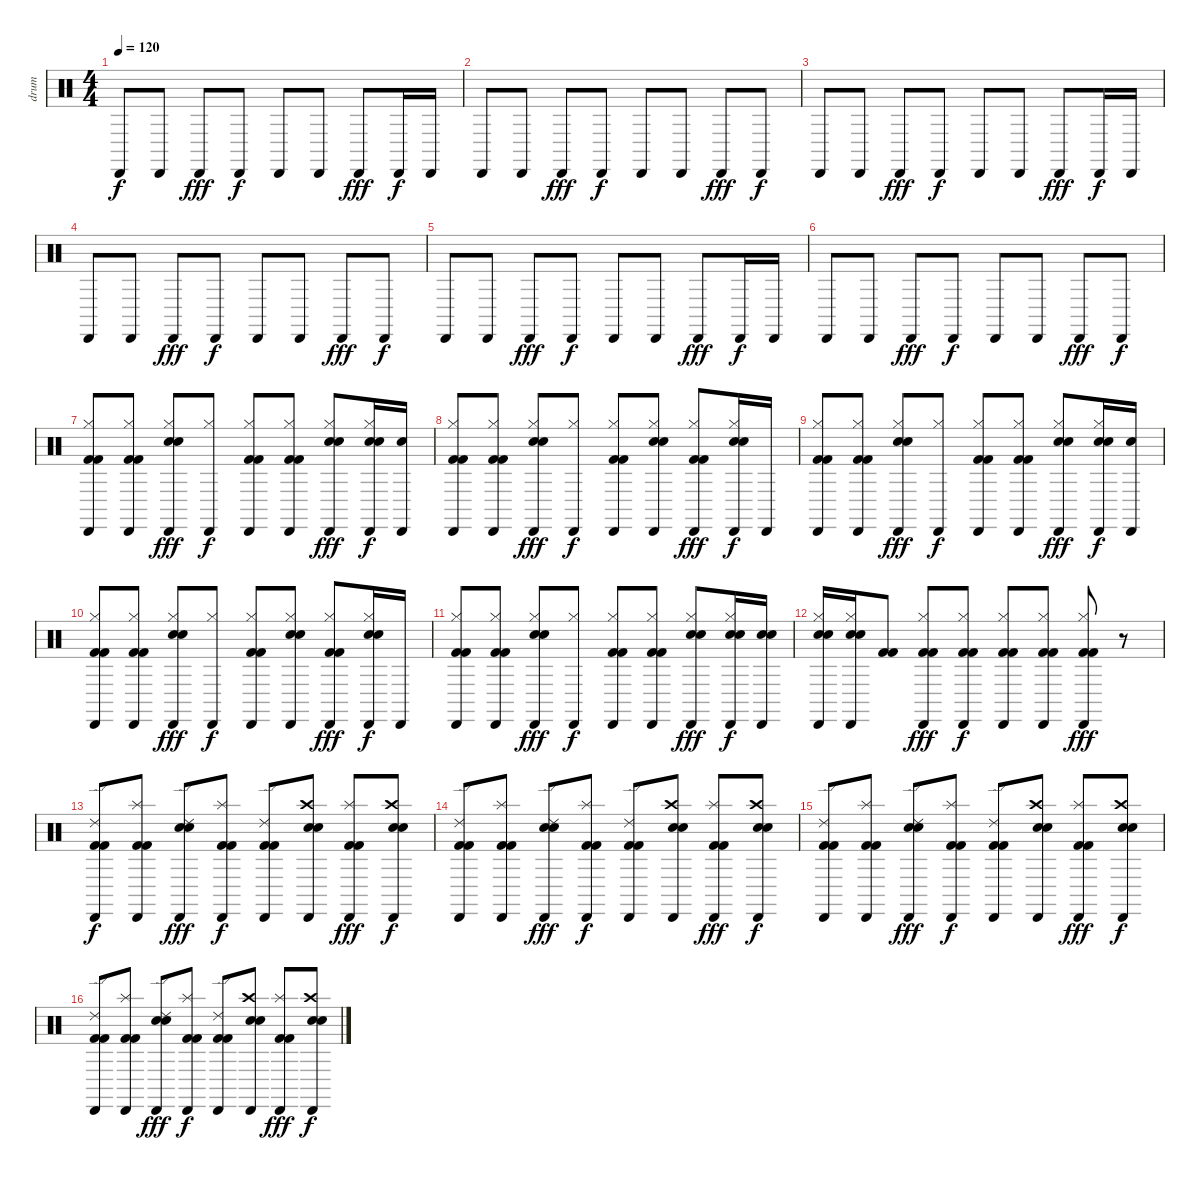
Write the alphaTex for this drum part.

\track ("drum" "drum") {instrument percussion}
\staff {score}
\articulation defaults
\ts (4 4)
\tempo 120
\clef neutral
\ks c "Cabasa (hit)".8{dy f} "Cabasa (hit)".8 "Cabasa (hit)".8{dy fff} "Cabasa (hit)".8{dy f} "Cabasa (hit)".8 "Cabasa (hit)".8 "Cabasa (hit)".8{dy fff} "Cabasa (hit)".16{dy f} "Cabasa (hit)".16
|
"Cabasa (hit)".8 "Cabasa (hit)".8 "Cabasa (hit)".8{dy fff} "Cabasa (hit)".8{dy f} "Cabasa (hit)".8 "Cabasa (hit)".8 "Cabasa (hit)".8{dy fff} "Cabasa (hit)".8{dy f} |
"Cabasa (hit)".8 "Cabasa (hit)".8 "Cabasa (hit)".8{dy fff} "Cabasa (hit)".8{dy f} "Cabasa (hit)".8 "Cabasa (hit)".8 "Cabasa (hit)".8{dy fff} "Cabasa (hit)".16{dy f} "Cabasa (hit)".16 |
"Cabasa (hit)".8 "Cabasa (hit)".8 "Cabasa (hit)".8{dy fff} "Cabasa (hit)".8{dy f} "Cabasa (hit)".8 "Cabasa (hit)".8 "Cabasa (hit)".8{dy fff} "Cabasa (hit)".8{dy f} |
"Cabasa (hit)".8 "Cabasa (hit)".8 "Cabasa (hit)".8{dy fff} "Cabasa (hit)".8{dy f} "Cabasa (hit)".8 "Cabasa (hit)".8 "Cabasa (hit)".8{dy fff} "Cabasa (hit)".16{dy f} "Cabasa (hit)".16 |
"Cabasa (hit)".8 "Cabasa (hit)".8 "Cabasa (hit)".8{dy fff} "Cabasa (hit)".8{dy f} "Cabasa (hit)".8 "Cabasa (hit)".8 "Cabasa (hit)".8{dy fff} "Cabasa (hit)".8{dy f} |
("Cabasa (hit)" "Hi-Hat (closed)" "Kick (hit) 2" "Kick (hit) 2").8 ("Cabasa (hit)" "Hi-Hat (closed)" "Kick (hit) 2" "Kick (hit) 2").8 ("Cabasa (hit)" "Hi-Hat (closed)" "Snare (hit) 2" "Snare (hit) 2").8{dy fff} ("Cabasa (hit)" "Hi-Hat (closed)").8{dy f} ("Cabasa (hit)" "Hi-Hat (closed)" "Kick (hit) 2" "Kick (hit) 2").8 ("Cabasa (hit)" "Hi-Hat (closed)" "Kick (hit) 2" "Kick (hit) 2").8 ("Cabasa (hit)" "Hi-Hat (closed)" "Snare (hit) 2" "Snare (hit) 2").8{dy fff} ("Cabasa (hit)" "Hi-Hat (closed)" "Snare (hit) 2" "Snare (hit) 2").16{dy f} ("Cabasa (hit)" "Snare (hit) 2").16 |
("Cabasa (hit)" "Hi-Hat (closed)" "Kick (hit) 2" "Kick (hit) 2").8 ("Cabasa (hit)" "Hi-Hat (closed)" "Kick (hit) 2" "Kick (hit) 2").8 ("Cabasa (hit)" "Hi-Hat (closed)" "Snare (hit) 2" "Snare (hit) 2").8{dy fff} ("Cabasa (hit)" "Hi-Hat (closed)").8{dy f} ("Cabasa (hit)" "Hi-Hat (closed)" "Kick (hit) 2" "Kick (hit) 2").8 ("Cabasa (hit)" "Hi-Hat (closed)" "Snare (hit) 2" "Snare (hit) 2").8 ("Cabasa (hit)" "Hi-Hat (closed)" "Kick (hit) 2" "Kick (hit) 2").8{dy fff} ("Cabasa (hit)" "Hi-Hat (closed)" "Snare (hit) 2" "Snare (hit) 2").16{dy f} "Cabasa (hit)".16 |
("Cabasa (hit)" "Hi-Hat (closed)" "Kick (hit) 2" "Kick (hit) 2").8 ("Cabasa (hit)" "Hi-Hat (closed)" "Kick (hit) 2" "Kick (hit) 2").8 ("Cabasa (hit)" "Hi-Hat (closed)" "Snare (hit) 2" "Snare (hit) 2").8{dy fff} ("Cabasa (hit)" "Hi-Hat (closed)").8{dy f} ("Cabasa (hit)" "Hi-Hat (closed)" "Kick (hit) 2" "Kick (hit) 2").8 ("Cabasa (hit)" "Hi-Hat (closed)" "Kick (hit) 2" "Kick (hit) 2").8 ("Cabasa (hit)" "Hi-Hat (closed)" "Snare (hit) 2" "Snare (hit) 2").8{dy fff} ("Cabasa (hit)" "Hi-Hat (closed)" "Snare (hit) 2" "Snare (hit) 2").16{dy f} ("Cabasa (hit)" "Snare (hit) 2").16 |
("Cabasa (hit)" "Hi-Hat (closed)" "Kick (hit) 2" "Kick (hit) 2").8 ("Cabasa (hit)" "Hi-Hat (closed)" "Kick (hit) 2" "Kick (hit) 2").8 ("Cabasa (hit)" "Hi-Hat (closed)" "Snare (hit) 2" "Snare (hit) 2").8{dy fff} ("Cabasa (hit)" "Hi-Hat (closed)").8{dy f} ("Cabasa (hit)" "Hi-Hat (closed)" "Kick (hit) 2" "Kick (hit) 2").8 ("Cabasa (hit)" "Hi-Hat (closed)" "Snare (hit) 2" "Snare (hit) 2").8 ("Cabasa (hit)" "Hi-Hat (closed)" "Kick (hit) 2" "Kick (hit) 2").8{dy fff} ("Cabasa (hit)" "Hi-Hat (closed)" "Snare (hit) 2" "Snare (hit) 2").16{dy f} "Cabasa (hit)".16 |
("Cabasa (hit)" "Hi-Hat (closed)" "Kick (hit) 2" "Kick (hit) 2").8 ("Cabasa (hit)" "Hi-Hat (closed)" "Kick (hit) 2" "Kick (hit) 2").8 ("Cabasa (hit)" "Hi-Hat (closed)" "Snare (hit) 2" "Snare (hit) 2").8{dy fff} ("Cabasa (hit)" "Hi-Hat (closed)").8{dy f} ("Cabasa (hit)" "Hi-Hat (closed)" "Kick (hit) 2" "Kick (hit) 2").8 ("Cabasa (hit)" "Hi-Hat (closed)" "Kick (hit) 2" "Kick (hit) 2").8 ("Cabasa (hit)" "Hi-Hat (closed)" "Snare (hit) 2" "Snare (hit) 2").8{dy fff} ("Cabasa (hit)" "Hi-Hat (closed)" "Snare (hit) 2" "Snare (hit) 2").16{dy f} ("Cabasa (hit)" "Snare (hit) 2" "Snare (hit) 2").16 |
("Cabasa (hit)" "Hi-Hat (closed)" "Snare (hit) 2" "Snare (hit) 2").16 ("Cabasa (hit)" "Hi-Hat (closed)" "Snare (hit) 2" "Snare (hit) 2").16 ("Kick (hit) 2" "Kick (hit) 2").8 ("Cabasa (hit)" "Hi-Hat (closed)" "Kick (hit) 2" "Kick (hit) 2").8{dy fff} ("Cabasa (hit)" "Hi-Hat (closed)" "Kick (hit) 2" "Kick (hit) 2").8{dy f} ("Cabasa (hit)" "Hi-Hat (closed)" "Kick (hit) 2" "Kick (hit) 2").8 ("Cabasa (hit)" "Hi-Hat (closed)" "Kick (hit) 2" "Kick (hit) 2").8 ("Cabasa (hit)" "Hi-Hat (closed)" "Kick (hit) 2" "Kick (hit) 2").8{dy fff} r.8 |
("Cabasa (hit)" "Ride (edge) 2" "Kick (hit) 2" "Kick (hit) 2").8{dy f} ("Cabasa (hit)" "Splash (hit)" "Kick (hit) 2" "Kick (hit) 2").8 ("Cabasa (hit)" "Ride (edge) 2" "Snare (hit) 2" "Snare (hit) 2").8{dy fff} ("Cabasa (hit)" "Splash (hit)" "Kick (hit) 2" "Kick (hit) 2").8{dy f} ("Cabasa (hit)" "Ride (edge) 2" "Kick (hit) 2" "Kick (hit) 2").8 ("Cabasa (hit)" "Crash high (hit)" "Snare (hit) 2" "Snare (hit) 2").8 ("Cabasa (hit)" "Splash (hit)" "Kick (hit) 2" "Kick (hit) 2").8{dy fff} ("Cabasa (hit)" "Crash high (hit)" "Snare (hit) 2" "Snare (hit) 2").8{dy f} |
("Cabasa (hit)" "Ride (edge) 2" "Kick (hit) 2" "Kick (hit) 2").8 ("Cabasa (hit)" "Splash (hit)" "Kick (hit) 2" "Kick (hit) 2").8 ("Cabasa (hit)" "Ride (edge) 2" "Snare (hit) 2" "Snare (hit) 2").8{dy fff} ("Cabasa (hit)" "Splash (hit)" "Kick (hit) 2" "Kick (hit) 2").8{dy f} ("Cabasa (hit)" "Ride (edge) 2" "Kick (hit) 2" "Kick (hit) 2").8 ("Cabasa (hit)" "Crash high (hit)" "Snare (hit) 2" "Snare (hit) 2").8 ("Cabasa (hit)" "Splash (hit)" "Kick (hit) 2" "Kick (hit) 2").8{dy fff} ("Cabasa (hit)" "Crash high (hit)" "Snare (hit) 2" "Snare (hit) 2").8{dy f} |
("Cabasa (hit)" "Ride (edge) 2" "Kick (hit) 2" "Kick (hit) 2").8 ("Cabasa (hit)" "Splash (hit)" "Kick (hit) 2" "Kick (hit) 2").8 ("Cabasa (hit)" "Ride (edge) 2" "Snare (hit) 2" "Snare (hit) 2").8{dy fff} ("Cabasa (hit)" "Splash (hit)" "Kick (hit) 2" "Kick (hit) 2").8{dy f} ("Cabasa (hit)" "Ride (edge) 2" "Kick (hit) 2" "Kick (hit) 2").8 ("Cabasa (hit)" "Crash high (hit)" "Snare (hit) 2" "Snare (hit) 2").8 ("Cabasa (hit)" "Splash (hit)" "Kick (hit) 2" "Kick (hit) 2").8{dy fff} ("Cabasa (hit)" "Crash high (hit)" "Snare (hit) 2" "Snare (hit) 2").8{dy f} |
("Cabasa (hit)" "Ride (edge) 2" "Kick (hit) 2" "Kick (hit) 2").8 ("Cabasa (hit)" "Splash (hit)" "Kick (hit) 2" "Kick (hit) 2").8 ("Cabasa (hit)" "Ride (edge) 2" "Snare (hit) 2" "Snare (hit) 2").8{dy fff} ("Cabasa (hit)" "Splash (hit)" "Kick (hit) 2" "Kick (hit) 2").8{dy f} ("Cabasa (hit)" "Ride (edge) 2" "Kick (hit) 2" "Kick (hit) 2").8 ("Cabasa (hit)" "Crash high (hit)" "Snare (hit) 2" "Snare (hit) 2").8 ("Cabasa (hit)" "Splash (hit)" "Kick (hit) 2" "Kick (hit) 2").8{dy fff} ("Cabasa (hit)" "Crash high (hit)" "Snare (hit) 2" "Snare (hit) 2").8{dy f}
